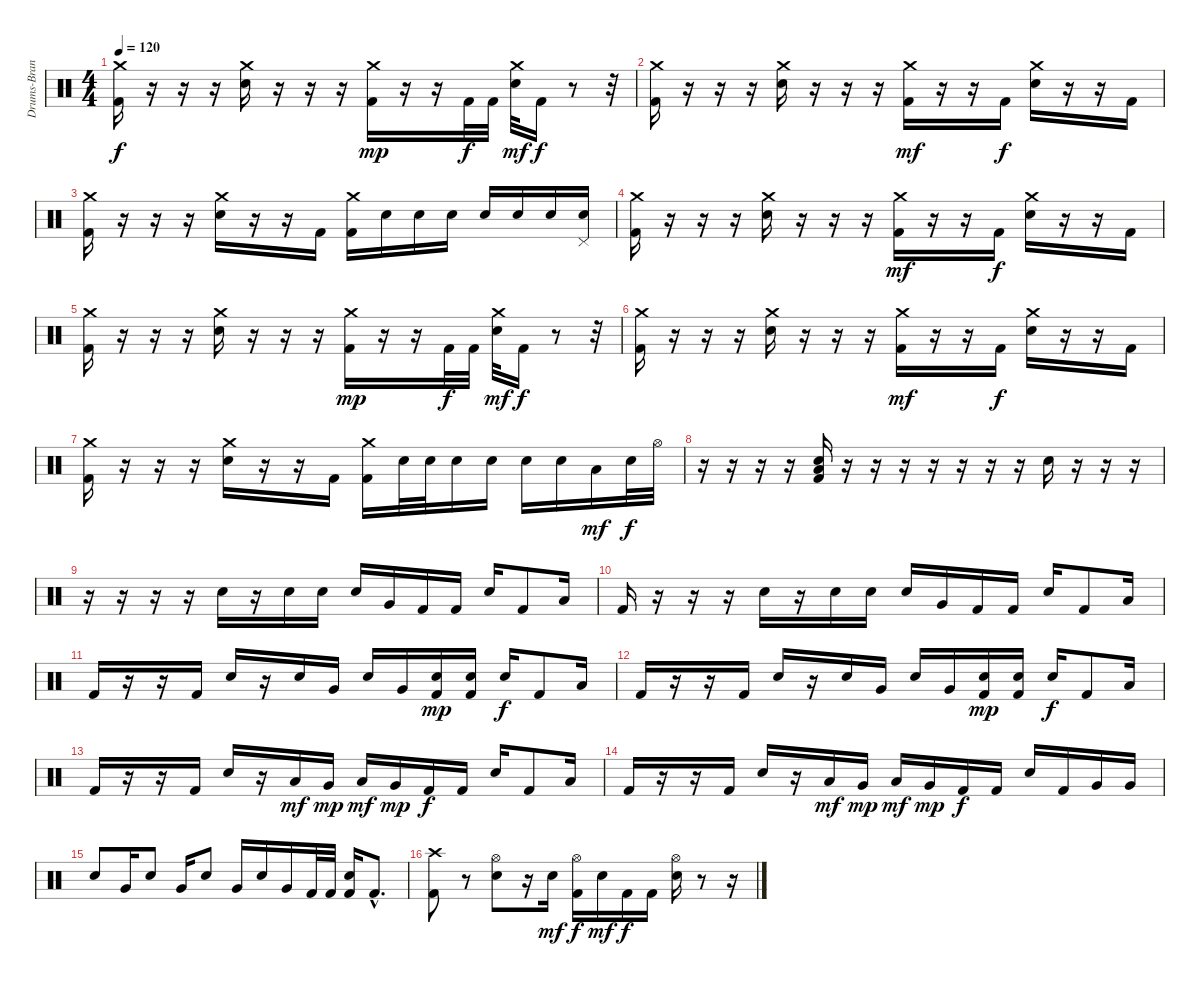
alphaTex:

\track ("Drums-Branden Steineckert" "Drums-Bran") {instrument percussion}
\staff {score}
\articulation defaults
\ts (4 4)
\tempo 120
\clef neutral
\ks c
("Crash medium (hit)" "Kick (hit) 2").16{dy f} r.16 r.16 r.16 ("Crash medium (hit)" "Electric Snare (hit)").16 r.16 r.16 r.16 ("Crash medium (hit)" "Kick (hit) 2").16{dy mp} r.16 r.16 "Kick (hit) 2".32{dy f} "Kick (hit) 2".32 ("Crash medium (hit)" "Electric Snare (hit)").32{dy mf} "Kick (hit) 2".16{dy f} r.8 r.32 |
("Crash medium (hit)" "Kick (hit) 2").16 r.16 r.16 r.16 ("Crash medium (hit)" "Electric Snare (hit)").16 r.16 r.16 r.16 ("Crash medium (hit)" "Kick (hit) 2").16{dy mf} r.16 r.16 "Kick (hit) 2".16{dy f} ("Crash medium (hit)" "Electric Snare (hit)").16 r.16 r.16 "Kick (hit) 2".16 |
("Crash medium (hit)" "Kick (hit) 2").16 r.16 r.16 r.16 ("Crash medium (hit)" "Electric Snare (hit)").16 r.16 r.16 "Kick (hit) 2".16 ("Crash medium (hit)" "Kick (hit) 2").16 "Electric Snare (hit)".16 "Electric Snare (hit)".16 "Electric Snare (hit)".16 "Electric Snare (hit)".16 "Electric Snare (hit)".16 "Electric Snare (hit)".16 ("Pedal Hi-Hat (hit)" "Electric Snare (hit)").16 |
("Crash medium (hit)" "Kick (hit) 2").16 r.16 r.16 r.16 ("Crash medium (hit)" "Electric Snare (hit)").16 r.16 r.16 r.16 ("Crash medium (hit)" "Kick (hit) 2").16{dy mf} r.16 r.16 "Kick (hit) 2".16{dy f} ("Crash medium (hit)" "Electric Snare (hit)").16 r.16 r.16 "Kick (hit) 2".16 |
("Crash medium (hit)" "Kick (hit) 2").16 r.16 r.16 r.16 ("Crash medium (hit)" "Electric Snare (hit)").16 r.16 r.16 r.16 ("Crash medium (hit)" "Kick (hit) 2").16{dy mp} r.16 r.16 "Kick (hit) 2".32{dy f} "Kick (hit) 2".32 ("Crash medium (hit)" "Electric Snare (hit)").32{dy mf} "Kick (hit) 2".16{dy f} r.8 r.32 |
("Crash medium (hit)" "Kick (hit) 2").16 r.16 r.16 r.16 ("Crash medium (hit)" "Electric Snare (hit)").16 r.16 r.16 r.16 ("Crash medium (hit)" "Kick (hit) 2").16{dy mf} r.16 r.16 "Kick (hit) 2".16{dy f} ("Crash medium (hit)" "Electric Snare (hit)").16 r.16 r.16 "Kick (hit) 2".16 |
("Crash medium (hit)" "Kick (hit) 2").16 r.16 r.16 r.16 ("Crash medium (hit)" "Electric Snare (hit)").16 r.16 r.16 "Kick (hit) 2".16 ("Crash medium (hit)" "Kick (hit) 2").16 "Electric Snare (hit)".32 "Electric Snare (hit)".32 "Electric Snare (hit)".16 "Electric Snare (hit)".16 "Electric Snare (hit)".16 "Electric Snare (hit)".16 "Low Floor Tom (hit)".16{dy mf} "Electric Snare (hit)".32{dy f} "Hi-Hat (open)".32 |
r.16 r.16 r.16 r.16 ("Low Floor Tom (hit)" "Kick (hit) 2" "Electric Snare (hit)").16 r.16 r.16 r.16 r.16 r.16 r.16 r.16 "Electric Snare (hit)".16 r.16 r.16 r.16 |
r.16 r.16 r.16 r.16 "Electric Snare (hit)".16 r.16 "Electric Snare (hit)".16 "Electric Snare (hit)".16 "Electric Snare (hit)".16 "Very Low Tom (hit)".16 "Kick (hit) 2".16 "Kick (hit) 2".16 "Electric Snare (hit)".16 "Kick (hit) 2".8 "Low Floor Tom (hit)".16 |
"Kick (hit) 2".16 r.16 r.16 r.16 "Electric Snare (hit)".16 r.16 "Electric Snare (hit)".16 "Electric Snare (hit)".16 "Electric Snare (hit)".16 "Very Low Tom (hit)".16 "Kick (hit) 2".16 "Kick (hit) 2".16 "Electric Snare (hit)".16 "Kick (hit) 2".8 "Low Floor Tom (hit)".16 |
"Kick (hit) 2".16 r.16 r.16 "Kick (hit) 2".16 "Electric Snare (hit)".16 r.16 "Electric Snare (hit)".16 "Very Low Tom (hit)".16 "Electric Snare (hit)".16 "Very Low Tom (hit)".16 ("Electric Snare (hit)" "Kick (hit) 2").16{dy mp} ("Electric Snare (hit)" "Kick (hit) 2").16 "Electric Snare (hit)".16{dy f} "Kick (hit) 2".8 "Low Floor Tom (hit)".16 |
"Kick (hit) 2".16 r.16 r.16 "Kick (hit) 2".16 "Electric Snare (hit)".16 r.16 "Electric Snare (hit)".16 "Very Low Tom (hit)".16 "Electric Snare (hit)".16 "Very Low Tom (hit)".16 ("Electric Snare (hit)" "Kick (hit) 2").16{dy mp} ("Electric Snare (hit)" "Kick (hit) 2").16 "Electric Snare (hit)".16{dy f} "Kick (hit) 2".8 "Low Floor Tom (hit)".16 |
"Kick (hit) 2".16 r.16 r.16 "Kick (hit) 2".16 "Electric Snare (hit)".16 r.16 "Low Tom (hit)".16{dy mf} "Very Low Tom (hit)".16{dy mp} "Low Tom (hit)".16{dy mf} "Very Low Tom (hit)".16{dy mp} "Kick (hit) 2".16{dy f} "Kick (hit) 2".16 "Electric Snare (hit)".16 "Kick (hit) 2".8 "Low Floor Tom (hit)".16 |
"Kick (hit) 2".16 r.16 r.16 "Kick (hit) 2".16 "Electric Snare (hit)".16 r.16 "Low Tom (hit)".16{dy mf} "Very Low Tom (hit)".16{dy mp} "Low Tom (hit)".16{dy mf} "Very Low Tom (hit)".16{dy mp} "Kick (hit) 2".16{dy f} "Kick (hit) 2".16 "Electric Snare (hit)".16 "Kick (hit) 2".16 "Very Low Tom (hit)".16 "Very Low Tom (hit)".16 |
"Electric Snare (hit)".8 "Very Low Tom (hit)".16 "Electric Snare (hit)".8 "Very Low Tom (hit)".16 "Electric Snare (hit)".8 "Very Low Tom (hit)".16 "Electric Snare (hit)".16 "Very Low Tom (hit)".16 "Kick (hit) 2".32 "Kick (hit) 2".32 ("Kick (hit) 2" "Electric Snare (hit)").16 "Kick (hit) 2"{hac}.8{d} |
("Crash high (hit)" "Kick (hit) 2").8 r.8 ("Hi-Hat (open)" "Electric Snare (hit)").8 r.16 "Electric Snare (hit)".16{dy mf} ("Hi-Hat (open)" "Kick (hit) 2").16{dy f} "Electric Snare (hit)".16{dy mf} "Kick (hit) 2".16{dy f} "Kick (hit) 2".16 ("Hi-Hat (open)" "Electric Snare (hit)").16 r.8 r.16
